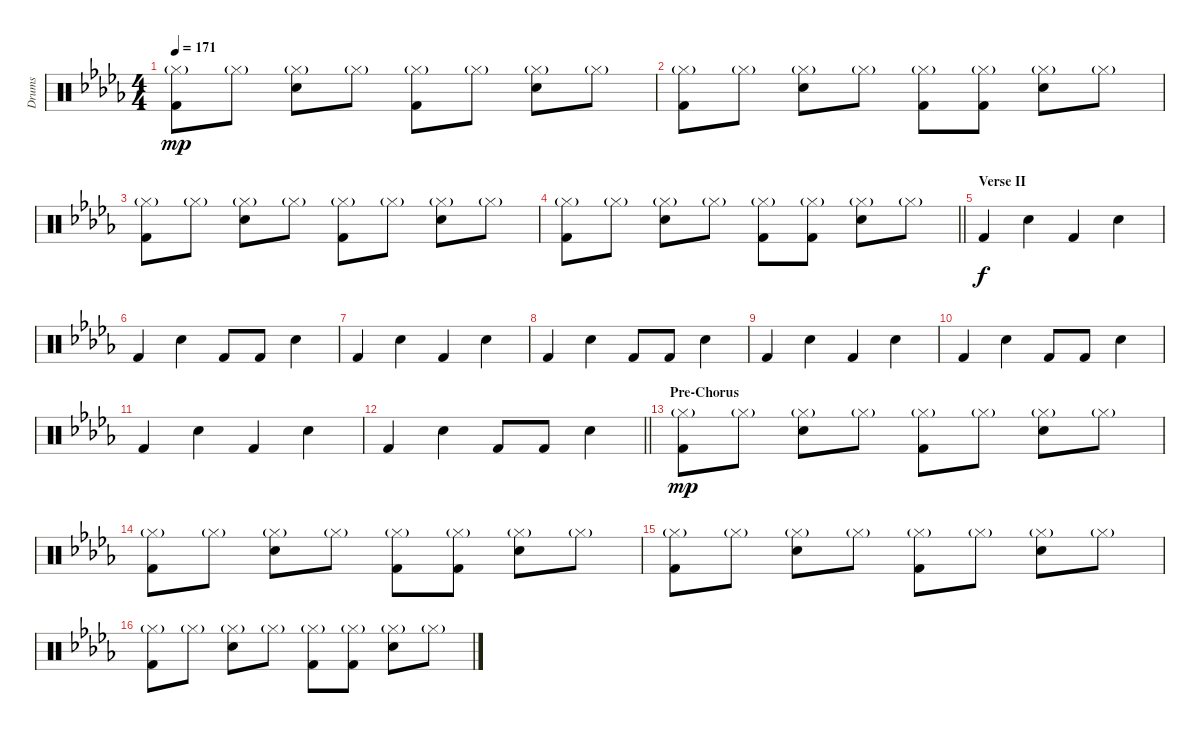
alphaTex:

\track ("Drums" "Drums") {instrument percussion}
\staff {score}
\articulation defaults
\ts (4 4)
\tempo 171
\clef neutral
\ks db
("Hi-Hat (closed)"{g} "Kick (hit) 2").8{dy mp} "Hi-Hat (closed)"{g}.8 ("Hi-Hat (closed)"{g} "Snare (hit) 2").8 "Hi-Hat (closed)"{g}.8 ("Hi-Hat (closed)"{g} "Kick (hit) 2").8 "Hi-Hat (closed)"{g}.8 ("Hi-Hat (closed)"{g} "Snare (hit) 2").8 "Hi-Hat (closed)"{g}.8 |
("Hi-Hat (closed)"{g} "Kick (hit) 2").8 "Hi-Hat (closed)"{g}.8 ("Hi-Hat (closed)"{g} "Snare (hit) 2").8 "Hi-Hat (closed)"{g}.8 ("Hi-Hat (closed)"{g} "Kick (hit) 2").8 ("Hi-Hat (closed)"{g} "Kick (hit) 2").8 ("Hi-Hat (closed)"{g} "Snare (hit) 2").8 "Hi-Hat (closed)"{g}.8 |
("Hi-Hat (closed)"{g} "Kick (hit) 2").8 "Hi-Hat (closed)"{g}.8 ("Hi-Hat (closed)"{g} "Snare (hit) 2").8 "Hi-Hat (closed)"{g}.8 ("Hi-Hat (closed)"{g} "Kick (hit) 2").8 "Hi-Hat (closed)"{g}.8 ("Hi-Hat (closed)"{g} "Snare (hit) 2").8 "Hi-Hat (closed)"{g}.8 |
\barLineRight lightlight
("Hi-Hat (closed)"{g} "Kick (hit) 2").8 "Hi-Hat (closed)"{g}.8 ("Hi-Hat (closed)"{g} "Snare (hit) 2").8 "Hi-Hat (closed)"{g}.8 ("Hi-Hat (closed)"{g} "Kick (hit) 2").8 ("Hi-Hat (closed)"{g} "Kick (hit) 2").8 ("Hi-Hat (closed)"{g} "Snare (hit) 2").8 "Hi-Hat (closed)"{g}.8 |
\section ("" "Verse II")
"Kick (hit) 2".4{dy f} "Snare (hit) 2".4 "Kick (hit) 2".4 "Snare (hit) 2".4 |
"Kick (hit) 2".4 "Snare (hit) 2".4 "Kick (hit) 2".8 "Kick (hit) 2".8 "Snare (hit) 2".4 |
"Kick (hit) 2".4 "Snare (hit) 2".4 "Kick (hit) 2".4 "Snare (hit) 2".4 |
"Kick (hit) 2".4 "Snare (hit) 2".4 "Kick (hit) 2".8 "Kick (hit) 2".8 "Snare (hit) 2".4 |
"Kick (hit) 2".4 "Snare (hit) 2".4 "Kick (hit) 2".4 "Snare (hit) 2".4 |
"Kick (hit) 2".4 "Snare (hit) 2".4 "Kick (hit) 2".8 "Kick (hit) 2".8 "Snare (hit) 2".4 |
"Kick (hit) 2".4 "Snare (hit) 2".4 "Kick (hit) 2".4 "Snare (hit) 2".4 |
\barLineRight lightlight "Kick (hit) 2".4 "Snare (hit) 2".4 "Kick (hit) 2".8 "Kick (hit) 2".8 "Snare (hit) 2".4
|
\section ("" "Pre-Chorus")
("Hi-Hat (closed)"{g} "Kick (hit) 2").8{dy mp} "Hi-Hat (closed)"{g}.8 ("Hi-Hat (closed)"{g} "Snare (hit) 2").8 "Hi-Hat (closed)"{g}.8 ("Hi-Hat (closed)"{g} "Kick (hit) 2").8 "Hi-Hat (closed)"{g}.8 ("Hi-Hat (closed)"{g} "Snare (hit) 2").8 "Hi-Hat (closed)"{g}.8 |
("Hi-Hat (closed)"{g} "Kick (hit) 2").8 "Hi-Hat (closed)"{g}.8 ("Hi-Hat (closed)"{g} "Snare (hit) 2").8 "Hi-Hat (closed)"{g}.8 ("Hi-Hat (closed)"{g} "Kick (hit) 2").8 ("Hi-Hat (closed)"{g} "Kick (hit) 2").8 ("Hi-Hat (closed)"{g} "Snare (hit) 2").8 "Hi-Hat (closed)"{g}.8 |
("Hi-Hat (closed)"{g} "Kick (hit) 2").8 "Hi-Hat (closed)"{g}.8 ("Hi-Hat (closed)"{g} "Snare (hit) 2").8 "Hi-Hat (closed)"{g}.8 ("Hi-Hat (closed)"{g} "Kick (hit) 2").8 "Hi-Hat (closed)"{g}.8 ("Hi-Hat (closed)"{g} "Snare (hit) 2").8 "Hi-Hat (closed)"{g}.8 |
("Hi-Hat (closed)"{g} "Kick (hit) 2").8 "Hi-Hat (closed)"{g}.8 ("Hi-Hat (closed)"{g} "Snare (hit) 2").8 "Hi-Hat (closed)"{g}.8 ("Hi-Hat (closed)"{g} "Kick (hit) 2").8 ("Hi-Hat (closed)"{g} "Kick (hit) 2").8 ("Hi-Hat (closed)"{g} "Snare (hit) 2").8 "Hi-Hat (closed)"{g}.8
